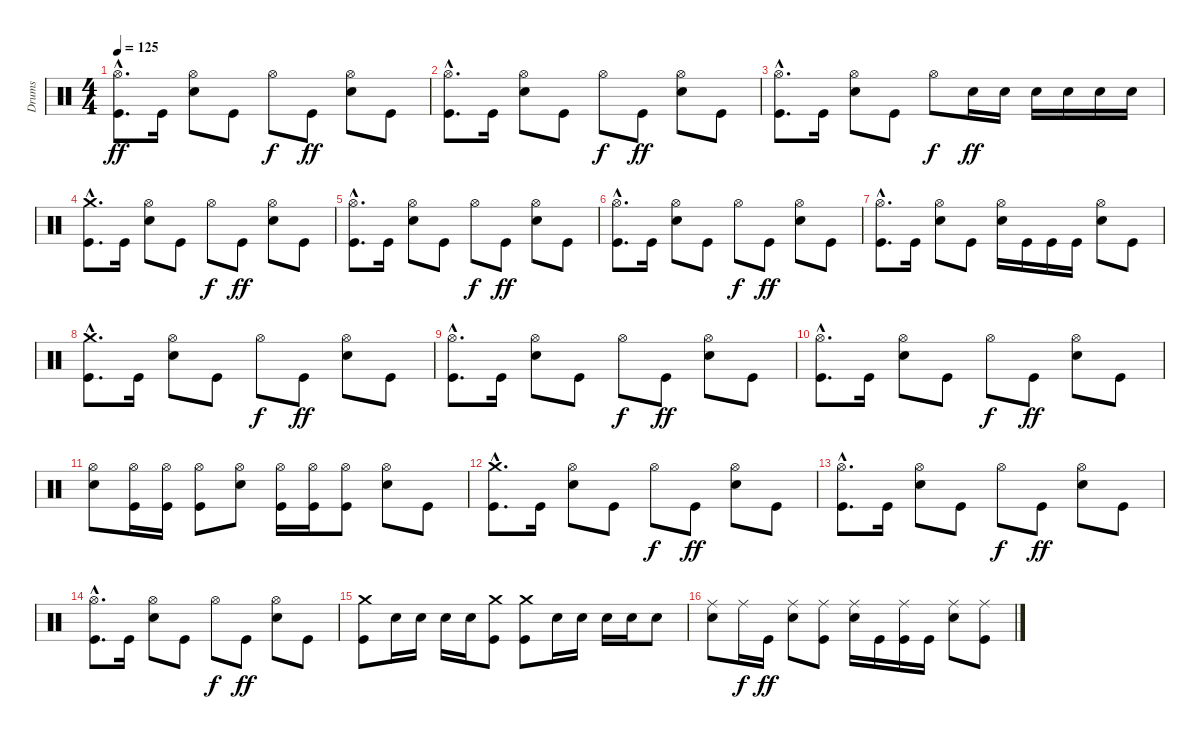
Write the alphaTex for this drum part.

\track ("Drums" "Drums") {instrument percussion}
\staff {score}
\articulation defaults
\ts (4 4)
\tempo 125
\clef neutral
\ks c
("Hi-Hat (open)"{hac} "Kick (hit)"{hac}).8{d dy ff} "Kick (hit)".16 ("Hi-Hat (open)" "Electric Snare (hit)").8 "Kick (hit)".8 "Hi-Hat (open)".8{dy f} "Kick (hit)".8{dy ff} ("Hi-Hat (open)" "Electric Snare (hit)").8 "Kick (hit)".8 |
("Hi-Hat (open)"{hac} "Kick (hit)"{hac}).8{d} "Kick (hit)".16 ("Hi-Hat (open)" "Electric Snare (hit)").8 "Kick (hit)".8 "Hi-Hat (open)".8{dy f} "Kick (hit)".8{dy ff} ("Hi-Hat (open)" "Electric Snare (hit)").8 "Kick (hit)".8 |
("Hi-Hat (open)"{hac} "Kick (hit)"{hac}).8{d} "Kick (hit)".16 ("Hi-Hat (open)" "Electric Snare (hit)").8 "Kick (hit)".8 "Hi-Hat (open)".8{dy f} "Electric Snare (hit)".16{dy ff} "Electric Snare (hit)".16 "Electric Snare (hit)".16 "Electric Snare (hit)".16 "Electric Snare (hit)".16 "Electric Snare (hit)".16 |
("Crash medium (hit)"{hac} "Kick (hit)"{hac}).8{d} "Kick (hit)".16 ("Hi-Hat (open)" "Electric Snare (hit)").8 "Kick (hit)".8 "Hi-Hat (open)".8{dy f} "Kick (hit)".8{dy ff} ("Hi-Hat (open)" "Electric Snare (hit)").8 "Kick (hit)".8 |
("Hi-Hat (open)"{hac} "Kick (hit)"{hac}).8{d} "Kick (hit)".16 ("Hi-Hat (open)" "Electric Snare (hit)").8 "Kick (hit)".8 "Hi-Hat (open)".8{dy f} "Kick (hit)".8{dy ff} ("Hi-Hat (open)" "Electric Snare (hit)").8 "Kick (hit)".8 |
("Hi-Hat (open)"{hac} "Kick (hit)"{hac}).8{d} "Kick (hit)".16 ("Hi-Hat (open)" "Electric Snare (hit)").8 "Kick (hit)".8 "Hi-Hat (open)".8{dy f} "Kick (hit)".8{dy ff} ("Hi-Hat (open)" "Electric Snare (hit)").8 "Kick (hit)".8 |
("Hi-Hat (open)"{hac} "Kick (hit)"{hac}).8{d} "Kick (hit)".16 ("Hi-Hat (open)" "Electric Snare (hit)").8 "Kick (hit)".8 ("Hi-Hat (open)" "Electric Snare (hit)").16 "Kick (hit)".16 "Kick (hit)".16 "Kick (hit)".16 ("Hi-Hat (open)" "Electric Snare (hit)").8 "Kick (hit)".8 |
("Crash medium (hit)"{hac} "Kick (hit)"{hac}).8{d} "Kick (hit)".16 ("Hi-Hat (open)" "Electric Snare (hit)").8 "Kick (hit)".8 "Hi-Hat (open)".8{dy f} "Kick (hit)".8{dy ff} ("Hi-Hat (open)" "Electric Snare (hit)").8 "Kick (hit)".8 |
("Hi-Hat (open)"{hac} "Kick (hit)"{hac}).8{d} "Kick (hit)".16 ("Hi-Hat (open)" "Electric Snare (hit)").8 "Kick (hit)".8 "Hi-Hat (open)".8{dy f} "Kick (hit)".8{dy ff} ("Hi-Hat (open)" "Electric Snare (hit)").8 "Kick (hit)".8 |
("Hi-Hat (open)"{hac} "Kick (hit)"{hac}).8{d} "Kick (hit)".16 ("Hi-Hat (open)" "Electric Snare (hit)").8 "Kick (hit)".8 "Hi-Hat (open)".8{dy f} "Kick (hit)".8{dy ff} ("Hi-Hat (open)" "Electric Snare (hit)").8 "Kick (hit)".8 |
("Hi-Hat (open)" "Electric Snare (hit)").8 ("Hi-Hat (open)" "Kick (hit)").16 ("Hi-Hat (open)" "Kick (hit)").16 ("Hi-Hat (open)" "Kick (hit)").8 ("Hi-Hat (open)" "Electric Snare (hit)").8 ("Hi-Hat (open)" "Kick (hit)").16 ("Hi-Hat (open)" "Kick (hit)").16 ("Hi-Hat (open)" "Kick (hit)").8 ("Hi-Hat (open)" "Electric Snare (hit)").8 "Kick (hit)".8 |
("Crash medium (hit)"{hac} "Kick (hit)"{hac}).8{d} "Kick (hit)".16 ("Hi-Hat (open)" "Electric Snare (hit)").8 "Kick (hit)".8 "Hi-Hat (open)".8{dy f} "Kick (hit)".8{dy ff} ("Hi-Hat (open)" "Electric Snare (hit)").8 "Kick (hit)".8 |
("Hi-Hat (open)"{hac} "Kick (hit)"{hac}).8{d} "Kick (hit)".16 ("Hi-Hat (open)" "Electric Snare (hit)").8 "Kick (hit)".8 "Hi-Hat (open)".8{dy f} "Kick (hit)".8{dy ff} ("Hi-Hat (open)" "Electric Snare (hit)").8 "Kick (hit)".8 |
("Hi-Hat (open)"{hac} "Kick (hit)"{hac}).8{d} "Kick (hit)".16 ("Hi-Hat (open)" "Electric Snare (hit)").8 "Kick (hit)".8 "Hi-Hat (open)".8{dy f} "Kick (hit)".8{dy ff} ("Hi-Hat (open)" "Electric Snare (hit)").8 "Kick (hit)".8 |
("Crash medium (hit)" "Kick (hit)").8 "Electric Snare (hit)".16 "Electric Snare (hit)".16 "Electric Snare (hit)".16 "Electric Snare (hit)".16 ("Crash medium (hit)" "Kick (hit)").8 ("Crash medium (hit)" "Kick (hit)").8 "Electric Snare (hit)".16 "Electric Snare (hit)".16 "Electric Snare (hit)".16 "Electric Snare (hit)".16 "Electric Snare (hit)".8 |
("Ride (middle)" "Electric Snare (hit)").8 "Ride (middle)".16{dy f} "Kick (hit)".16{dy ff} ("Ride (middle)" "Electric Snare (hit)").8 ("Ride (middle)" "Kick (hit)").8 ("Ride (middle)" "Electric Snare (hit)").16 "Kick (hit)".16 ("Ride (middle)" "Kick (hit)").16 "Kick (hit)".16 ("Ride (middle)" "Electric Snare (hit)").8 ("Ride (middle)" "Kick (hit)").8
